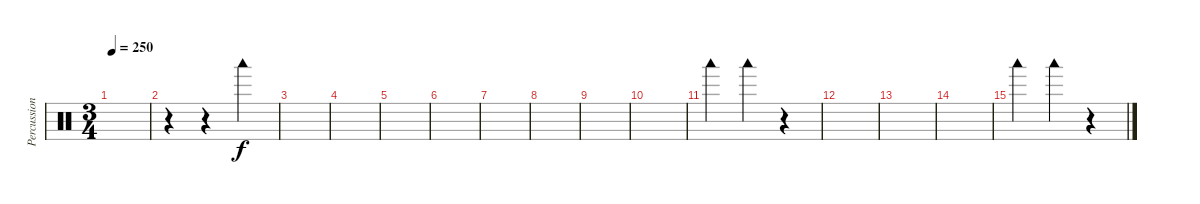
\track ("Percussion" "Percussion") {instrument percussion}
\staff {score}
\articulation defaults
\ts (3 4)
\tempo 250
\clef neutral
\ks c
|
r.4 r.4 "Woodblock low (hit)".4 |
|
|
|
|
|
|
|
|
"Woodblock low (hit)".4 "Woodblock low (hit)".4 r.4 |
|
|
|
"Woodblock low (hit)".4 "Woodblock low (hit)".4 r.4
